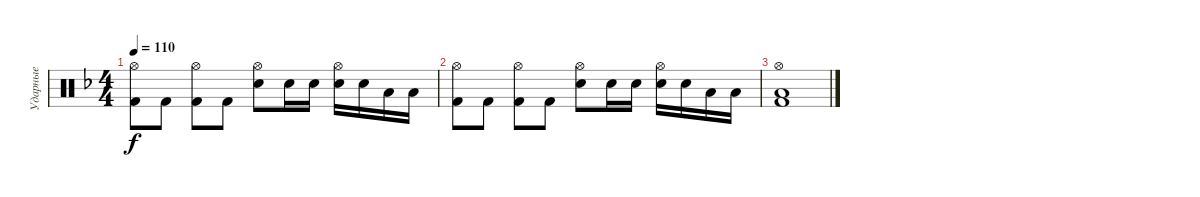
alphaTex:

\track ("Ударные" "Ударные") {instrument percussion}
\staff {score}
\articulation defaults
\ts (4 4)
\tempo 110
\clef neutral
\ks dminor
("Hi-Hat (open)" "Kick (hit) 2").8{dy f} "Kick (hit) 2".8 ("Hi-Hat (open)" "Kick (hit) 2").8 "Kick (hit) 2".8 ("Hi-Hat (open)" "Electric Snare (hit)").8 "Electric Snare (hit)".16 "Electric Snare (hit)".16 ("Hi-Hat (open)" "Electric Snare (hit)").16 "Electric Snare (hit)".16 "Low Tom (hit)".16 "Low Tom (hit)".16 |
("Hi-Hat (open)" "Kick (hit) 2").8 "Kick (hit) 2".8 ("Hi-Hat (open)" "Kick (hit) 2").8 "Kick (hit) 2".8 ("Hi-Hat (open)" "Electric Snare (hit)").8 "Electric Snare (hit)".16 "Electric Snare (hit)".16 ("Hi-Hat (open)" "Electric Snare (hit)").16 "Electric Snare (hit)".16 "Low Tom (hit)".16 "Low Tom (hit)".16 |
("Hi-Hat (open)" "Low Tom (hit)" "Kick (hit) 2").1
